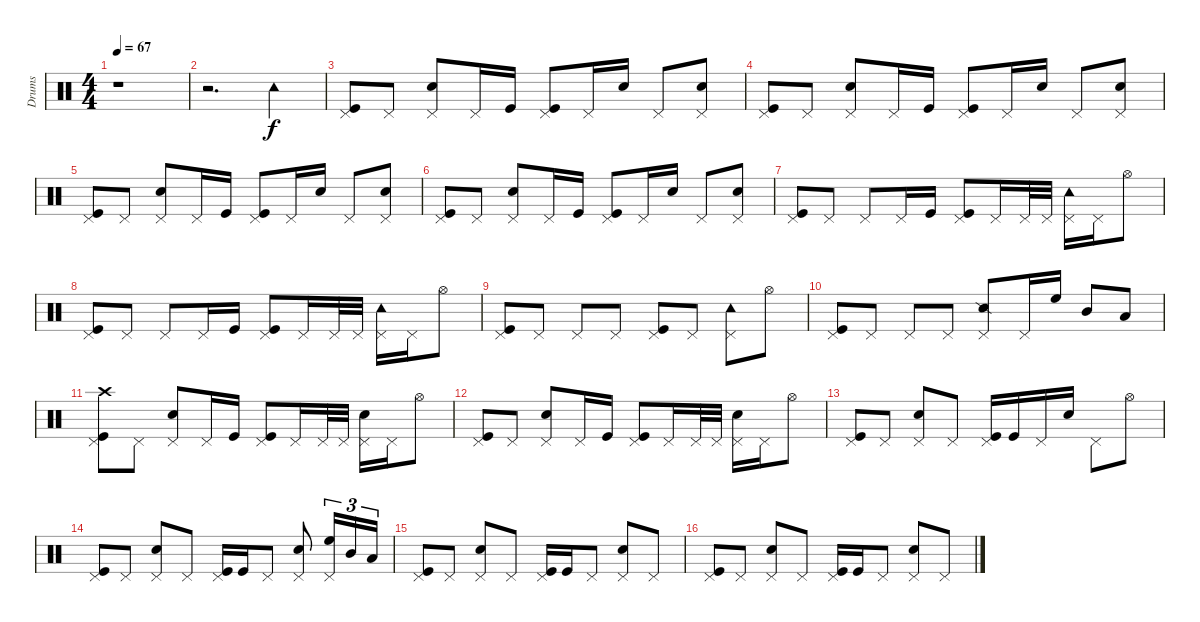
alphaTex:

\track ("Drums" "Drums") {instrument percussion}
\staff {score}
\articulation defaults
\ts (4 4)
\tempo 67
\clef neutral
\ks c
r.1{dy f} |
r.2{d} "Tambourine (hit)".4 |
("Kick (hit)" "Pedal Hi-Hat (hit)").8 "Pedal Hi-Hat (hit)".8 ("Snare (hit) 2" "Pedal Hi-Hat (hit)").8 "Pedal Hi-Hat (hit)".16 "Kick (hit)".16 ("Kick (hit)" "Pedal Hi-Hat (hit)").8 "Pedal Hi-Hat (hit)".16 "Snare (hit) 2".16 "Pedal Hi-Hat (hit)".8 ("Snare (hit) 2" "Pedal Hi-Hat (hit)").8 |
("Kick (hit)" "Pedal Hi-Hat (hit)").8 "Pedal Hi-Hat (hit)".8 ("Snare (hit) 2" "Pedal Hi-Hat (hit)").8 "Pedal Hi-Hat (hit)".16 "Kick (hit)".16 ("Kick (hit)" "Pedal Hi-Hat (hit)").8 "Pedal Hi-Hat (hit)".16 "Snare (hit) 2".16 "Pedal Hi-Hat (hit)".8 ("Snare (hit) 2" "Pedal Hi-Hat (hit)").8 |
("Kick (hit)" "Pedal Hi-Hat (hit)").8 "Pedal Hi-Hat (hit)".8 ("Snare (hit) 2" "Pedal Hi-Hat (hit)").8 "Pedal Hi-Hat (hit)".16 "Kick (hit)".16 ("Kick (hit)" "Pedal Hi-Hat (hit)").8 "Pedal Hi-Hat (hit)".16 "Snare (hit) 2".16 "Pedal Hi-Hat (hit)".8 ("Snare (hit) 2" "Pedal Hi-Hat (hit)").8 |
("Kick (hit)" "Pedal Hi-Hat (hit)").8 "Pedal Hi-Hat (hit)".8 ("Snare (hit) 2" "Pedal Hi-Hat (hit)").8 "Pedal Hi-Hat (hit)".16 "Kick (hit)".16 ("Kick (hit)" "Pedal Hi-Hat (hit)").8 "Pedal Hi-Hat (hit)".16 "Snare (hit) 2".16 "Pedal Hi-Hat (hit)".8 ("Snare (hit) 2" "Pedal Hi-Hat (hit)").8 |
("Kick (hit)" "Pedal Hi-Hat (hit)").8 "Pedal Hi-Hat (hit)".8 "Pedal Hi-Hat (hit)".8 "Pedal Hi-Hat (hit)".16 "Kick (hit)".16 ("Kick (hit)" "Pedal Hi-Hat (hit)").8 "Pedal Hi-Hat (hit)".16 "Pedal Hi-Hat (hit)".32 "Pedal Hi-Hat (hit)".32 ("Tambourine (hit)" "Pedal Hi-Hat (hit)").16 "Pedal Hi-Hat (hit)".16 "Hi-Hat (open)".8 |
("Kick (hit)" "Pedal Hi-Hat (hit)").8 "Pedal Hi-Hat (hit)".8 "Pedal Hi-Hat (hit)".8 "Pedal Hi-Hat (hit)".16 "Kick (hit)".16 ("Kick (hit)" "Pedal Hi-Hat (hit)").8 "Pedal Hi-Hat (hit)".16 "Pedal Hi-Hat (hit)".32 "Pedal Hi-Hat (hit)".32 ("Tambourine (hit)" "Pedal Hi-Hat (hit)").16 "Pedal Hi-Hat (hit)".16 "Hi-Hat (open)".8 |
("Kick (hit)" "Pedal Hi-Hat (hit)").8 "Pedal Hi-Hat (hit)".8 "Pedal Hi-Hat (hit)".8 "Pedal Hi-Hat (hit)".8 ("Kick (hit)" "Pedal Hi-Hat (hit)").8 "Pedal Hi-Hat (hit)".8 ("Tambourine (hit)" "Pedal Hi-Hat (hit)").8 "Hi-Hat (open)".8 |
("Kick (hit)" "Pedal Hi-Hat (hit)").8 "Pedal Hi-Hat (hit)".8 "Pedal Hi-Hat (hit)".8 "Pedal Hi-Hat (hit)".8 ("Snare (side stick) 2" "Pedal Hi-Hat (hit)").8 "Pedal Hi-Hat (hit)".16 "High Floor Tom (hit)".16 "Mid Tom (hit)".8 "Low Tom (hit)".8 |
("Kick (hit)" "Pedal Hi-Hat (hit)" "Crash high (hit)").8 "Pedal Hi-Hat (hit)".8 ("Snare (hit) 2" "Pedal Hi-Hat (hit)").8 "Pedal Hi-Hat (hit)".16 "Kick (hit)".16 ("Kick (hit)" "Pedal Hi-Hat (hit)").8 "Pedal Hi-Hat (hit)".16 "Pedal Hi-Hat (hit)".32 "Pedal Hi-Hat (hit)".32 ("Snare (hit) 2" "Pedal Hi-Hat (hit)").16 "Pedal Hi-Hat (hit)".16 "Hi-Hat (open)".8 |
("Kick (hit)" "Pedal Hi-Hat (hit)").8 "Pedal Hi-Hat (hit)".8 ("Snare (hit) 2" "Pedal Hi-Hat (hit)").8 "Pedal Hi-Hat (hit)".16 "Kick (hit)".16 ("Kick (hit)" "Pedal Hi-Hat (hit)").8 "Pedal Hi-Hat (hit)".16 "Pedal Hi-Hat (hit)".32 "Pedal Hi-Hat (hit)".32 ("Snare (hit) 2" "Pedal Hi-Hat (hit)").16 "Pedal Hi-Hat (hit)".16 "Hi-Hat (open)".8 |
("Kick (hit)" "Pedal Hi-Hat (hit)").8 "Pedal Hi-Hat (hit)".8 ("Snare (hit) 2" "Pedal Hi-Hat (hit)").8 "Pedal Hi-Hat (hit)".8 ("Kick (hit)" "Pedal Hi-Hat (hit)").16 "Kick (hit)".16 "Pedal Hi-Hat (hit)".16 "Snare (hit) 2".16 "Pedal Hi-Hat (hit)".8 "Hi-Hat (open)".8 |
("Kick (hit)" "Pedal Hi-Hat (hit)").8 "Pedal Hi-Hat (hit)".8 ("Snare (hit) 2" "Pedal Hi-Hat (hit)").8 "Pedal Hi-Hat (hit)".8 ("Kick (hit)" "Pedal Hi-Hat (hit)").16 "Kick (hit)".16 "Pedal Hi-Hat (hit)".8 ("Snare (hit) 2" "Pedal Hi-Hat (hit)").8 ("High Floor Tom (hit)" "Pedal Hi-Hat (hit)").16{tu (3 2)} "Mid Tom (hit)".16{tu (3 2)} "Low Tom (hit)".16{tu (3 2)} |
("Kick (hit)" "Pedal Hi-Hat (hit)").8 "Pedal Hi-Hat (hit)".8 ("Snare (hit) 2" "Pedal Hi-Hat (hit)").8 "Pedal Hi-Hat (hit)".8 ("Kick (hit)" "Pedal Hi-Hat (hit)").16 "Kick (hit)".16 "Pedal Hi-Hat (hit)".8 ("Snare (hit) 2" "Pedal Hi-Hat (hit)").8 "Pedal Hi-Hat (hit)".8 |
("Kick (hit)" "Pedal Hi-Hat (hit)").8 "Pedal Hi-Hat (hit)".8 ("Snare (hit) 2" "Pedal Hi-Hat (hit)").8 "Pedal Hi-Hat (hit)".8 ("Kick (hit)" "Pedal Hi-Hat (hit)").16 "Kick (hit)".16 "Pedal Hi-Hat (hit)".8 ("Snare (hit) 2" "Pedal Hi-Hat (hit)").8 "Pedal Hi-Hat (hit)".8
